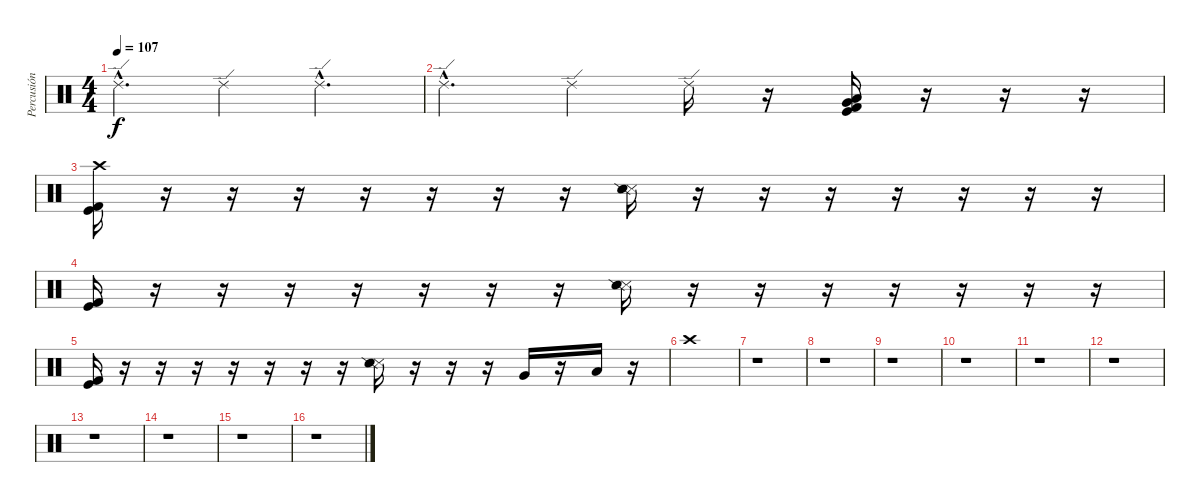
\track ("Percusión" "Percusión") {instrument percussion}
\staff {score}
\articulation defaults
\ts (4 4)
\tempo 107
\clef neutral
\ks c "Ride (edge) 2"{hac}.4{d dy f} "Ride (edge) 2".4 "Ride (edge) 2"{hac}.4{d}
|
"Ride (edge) 2"{hac}.4{d} "Ride (edge) 2".4 "Ride (edge) 2".16 r.16 ("Kick (hit) 2" "Low Floor Tom (hit)" "Very Low Tom (hit)" "Kick (hit)").16 r.16 r.16 r.16 |
("Crash high (hit)" "Kick (hit) 2" "Kick (hit)").16 r.16 r.16 r.16 r.16 r.16 r.16 r.16 ("Snare (side stick) 3" "Snare (side stick) 2").16 r.16 r.16 r.16 r.16 r.16 r.16 r.16 |
("Kick (hit) 2" "Kick (hit)").16 r.16 r.16 r.16 r.16 r.16 r.16 r.16 ("Snare (side stick) 3" "Snare (side stick) 2").16 r.16 r.16 r.16 r.16 r.16 r.16 r.16 |
("Kick (hit) 2" "Kick (hit)").16 r.16 r.16 r.16 r.16 r.16 r.16 r.16 ("Snare (side stick) 3" "Snare (side stick) 2").16 r.16 r.16 r.16 "Very Low Tom (hit)".16 r.16 "Low Floor Tom (hit)".16 r.16 |
"Crash high (hit)".1 |
r.1 |
r.1 |
r.1 |
r.1 |
r.1 |
r.1 |
r.1 |
r.1 |
r.1 |
r.1
